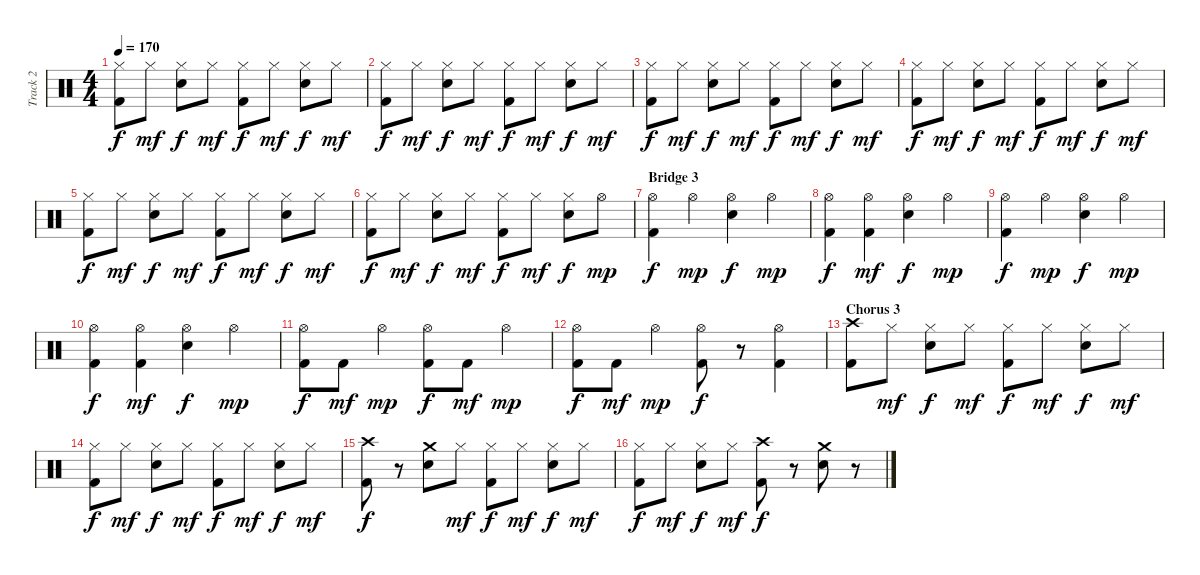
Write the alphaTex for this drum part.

\track ("Track 2" "Track 2") {instrument percussion}
\staff {score}
\articulation defaults
\ts (4 4)
\tempo 170
\clef neutral
\ks c
("Hi-Hat (closed)" "Kick (hit) 2").8{dy f} "Hi-Hat (closed)".8{dy mf} ("Hi-Hat (closed)" "Electric Snare (hit)").8{dy f} "Hi-Hat (closed)".8{dy mf} ("Hi-Hat (closed)" "Kick (hit) 2").8{dy f} "Hi-Hat (closed)".8{dy mf} ("Hi-Hat (closed)" "Electric Snare (hit)").8{dy f} "Hi-Hat (closed)".8{dy mf} |
("Hi-Hat (closed)" "Kick (hit) 2").8{dy f} "Hi-Hat (closed)".8{dy mf} ("Hi-Hat (closed)" "Electric Snare (hit)").8{dy f} "Hi-Hat (closed)".8{dy mf} ("Hi-Hat (closed)" "Kick (hit) 2").8{dy f} "Hi-Hat (closed)".8{dy mf} ("Hi-Hat (closed)" "Electric Snare (hit)").8{dy f} "Hi-Hat (closed)".8{dy mf} |
("Hi-Hat (closed)" "Kick (hit) 2").8{dy f} "Hi-Hat (closed)".8{dy mf} ("Hi-Hat (closed)" "Electric Snare (hit)").8{dy f} "Hi-Hat (closed)".8{dy mf} ("Hi-Hat (closed)" "Kick (hit) 2").8{dy f} "Hi-Hat (closed)".8{dy mf} ("Hi-Hat (closed)" "Electric Snare (hit)").8{dy f} "Hi-Hat (closed)".8{dy mf} |
("Hi-Hat (closed)" "Kick (hit) 2").8{dy f} "Hi-Hat (closed)".8{dy mf} ("Hi-Hat (closed)" "Electric Snare (hit)").8{dy f} "Hi-Hat (closed)".8{dy mf} ("Hi-Hat (closed)" "Kick (hit) 2").8{dy f} "Hi-Hat (closed)".8{dy mf} ("Hi-Hat (closed)" "Electric Snare (hit)").8{dy f} "Hi-Hat (closed)".8{dy mf} |
("Hi-Hat (closed)" "Kick (hit) 2").8{dy f} "Hi-Hat (closed)".8{dy mf} ("Hi-Hat (closed)" "Electric Snare (hit)").8{dy f} "Hi-Hat (closed)".8{dy mf} ("Hi-Hat (closed)" "Kick (hit) 2").8{dy f} "Hi-Hat (closed)".8{dy mf} ("Hi-Hat (closed)" "Electric Snare (hit)").8{dy f} "Hi-Hat (closed)".8{dy mf} |
("Hi-Hat (closed)" "Kick (hit) 2").8{dy f} "Hi-Hat (closed)".8{dy mf} ("Hi-Hat (closed)" "Electric Snare (hit)").8{dy f} "Hi-Hat (closed)".8{dy mf} ("Hi-Hat (closed)" "Kick (hit) 2").8{dy f} "Hi-Hat (closed)".8{dy mf} ("Hi-Hat (closed)" "Electric Snare (hit)").8{dy f} "Hi-Hat (open)".8{dy mp} |
\section ("" "Bridge 3")
("Hi-Hat (open)" "Kick (hit) 2").4{dy f} "Hi-Hat (open)".4{dy mp} ("Hi-Hat (open)" "Electric Snare (hit)").4{dy f} "Hi-Hat (open)".4{dy mp} |
("Hi-Hat (open)" "Kick (hit) 2").4{dy f} ("Hi-Hat (open)" "Kick (hit) 2").4{dy mf} ("Hi-Hat (open)" "Electric Snare (hit)").4{dy f} "Hi-Hat (open)".4{dy mp} |
("Hi-Hat (open)" "Kick (hit) 2").4{dy f} "Hi-Hat (open)".4{dy mp} ("Hi-Hat (open)" "Electric Snare (hit)").4{dy f} "Hi-Hat (open)".4{dy mp} |
("Hi-Hat (open)" "Kick (hit) 2").4{dy f} ("Hi-Hat (open)" "Kick (hit) 2").4{dy mf} ("Hi-Hat (open)" "Electric Snare (hit)").4{dy f} "Hi-Hat (open)".4{dy mp} |
("Hi-Hat (open)" "Kick (hit) 2").8{dy f} "Kick (hit) 2".8{dy mf} "Hi-Hat (open)".4{dy mp} ("Hi-Hat (open)" "Kick (hit) 2").8{dy f} "Kick (hit) 2".8{dy mf} "Hi-Hat (open)".4{dy mp} |
("Hi-Hat (open)" "Kick (hit) 2").8{dy f} "Kick (hit) 2".8{dy mf} "Hi-Hat (open)".4{dy mp} ("Hi-Hat (open)" "Kick (hit) 2").8{dy f} r.8 ("Hi-Hat (open)" "Kick (hit) 2").4 |
\section ("" "Chorus 3")
("Crash high (hit)" "Kick (hit) 2").8 "Hi-Hat (closed)".8{dy mf} ("Hi-Hat (closed)" "Electric Snare (hit)").8{dy f} "Hi-Hat (closed)".8{dy mf} ("Hi-Hat (closed)" "Kick (hit) 2").8{dy f} "Hi-Hat (closed)".8{dy mf} ("Hi-Hat (closed)" "Electric Snare (hit)").8{dy f} "Hi-Hat (closed)".8{dy mf} |
("Hi-Hat (closed)" "Kick (hit) 2").8{dy f} "Hi-Hat (closed)".8{dy mf} ("Hi-Hat (closed)" "Electric Snare (hit)").8{dy f} "Hi-Hat (closed)".8{dy mf} ("Hi-Hat (closed)" "Kick (hit) 2").8{dy f} "Hi-Hat (closed)".8{dy mf} ("Hi-Hat (closed)" "Electric Snare (hit)").8{dy f} "Hi-Hat (closed)".8{dy mf} |
("Crash high (hit)" "Kick (hit) 2").8{dy f} r.8 ("Crash medium (hit)" "Electric Snare (hit)").8 "Hi-Hat (closed)".8{dy mf} ("Hi-Hat (closed)" "Kick (hit) 2").8{dy f} "Hi-Hat (closed)".8{dy mf} ("Hi-Hat (closed)" "Electric Snare (hit)").8{dy f} "Hi-Hat (closed)".8{dy mf} |
("Hi-Hat (closed)" "Kick (hit) 2").8{dy f} "Hi-Hat (closed)".8{dy mf} ("Hi-Hat (closed)" "Electric Snare (hit)").8{dy f} "Hi-Hat (closed)".8{dy mf} ("Crash high (hit)" "Kick (hit) 2").8{dy f} r.8 ("Crash medium (hit)" "Electric Snare (hit)").8 r.8
